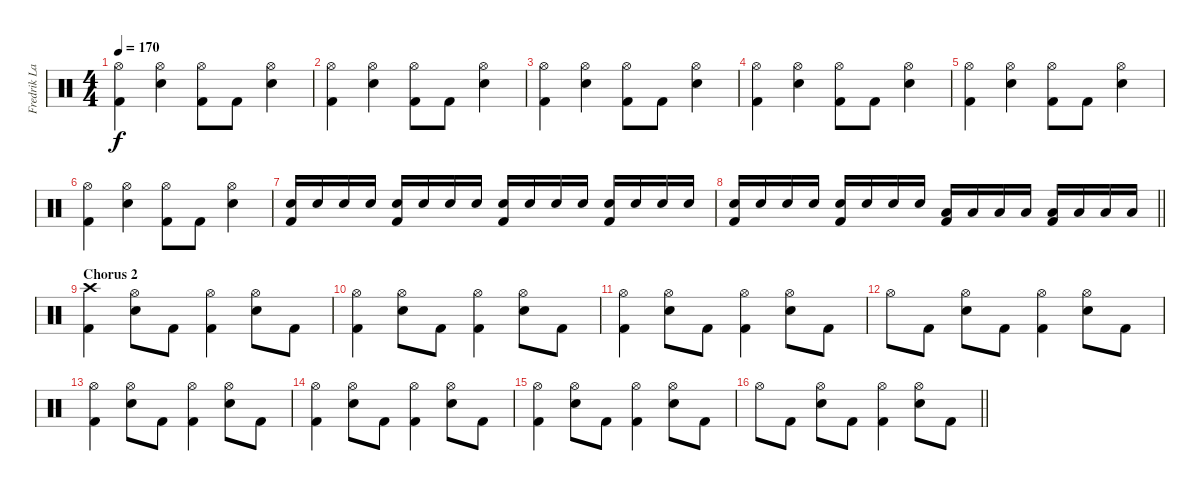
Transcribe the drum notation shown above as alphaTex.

\track ("Fredrik Larzon" "Fredrik La") {instrument percussion}
\staff {score}
\articulation defaults
\ts (4 4)
\tempo 170
\clef neutral
\ks c
("Hi-Hat (open)" "Kick (hit) 2").4{dy f} ("Hi-Hat (open)" "Electric Snare (hit)").4 ("Hi-Hat (open)" "Kick (hit) 2").8 "Kick (hit) 2".8 ("Hi-Hat (open)" "Electric Snare (hit)").4 |
("Hi-Hat (open)" "Kick (hit) 2").4 ("Hi-Hat (open)" "Electric Snare (hit)").4 ("Hi-Hat (open)" "Kick (hit) 2").8 "Kick (hit) 2".8 ("Hi-Hat (open)" "Electric Snare (hit)").4 |
("Hi-Hat (open)" "Kick (hit) 2").4 ("Hi-Hat (open)" "Electric Snare (hit)").4 ("Hi-Hat (open)" "Kick (hit) 2").8 "Kick (hit) 2".8 ("Hi-Hat (open)" "Electric Snare (hit)").4 |
("Hi-Hat (open)" "Kick (hit) 2").4 ("Hi-Hat (open)" "Electric Snare (hit)").4 ("Hi-Hat (open)" "Kick (hit) 2").8 "Kick (hit) 2".8 ("Hi-Hat (open)" "Electric Snare (hit)").4 |
("Hi-Hat (open)" "Kick (hit) 2").4 ("Hi-Hat (open)" "Electric Snare (hit)").4 ("Hi-Hat (open)" "Kick (hit) 2").8 "Kick (hit) 2".8 ("Hi-Hat (open)" "Electric Snare (hit)").4 |
("Hi-Hat (open)" "Kick (hit) 2").4 ("Hi-Hat (open)" "Electric Snare (hit)").4 ("Hi-Hat (open)" "Kick (hit) 2").8 "Kick (hit) 2".8 ("Hi-Hat (open)" "Electric Snare (hit)").4 |
("Electric Snare (hit)" "Kick (hit) 2").16 "Electric Snare (hit)".16 "Electric Snare (hit)".16 "Electric Snare (hit)".16 ("Electric Snare (hit)" "Kick (hit) 2").16 "Electric Snare (hit)".16 "Electric Snare (hit)".16 "Electric Snare (hit)".16 ("Electric Snare (hit)" "Kick (hit) 2").16 "Electric Snare (hit)".16 "Electric Snare (hit)".16 "Electric Snare (hit)".16 ("Electric Snare (hit)" "Kick (hit) 2").16 "Electric Snare (hit)".16 "Electric Snare (hit)".16 "Electric Snare (hit)".16 |
\barLineRight lightlight
("Electric Snare (hit)" "Kick (hit) 2").16 "Electric Snare (hit)".16 "Electric Snare (hit)".16 "Electric Snare (hit)".16 ("Electric Snare (hit)" "Kick (hit) 2").16 "Electric Snare (hit)".16 "Electric Snare (hit)".16 "Electric Snare (hit)".16 ("Kick (hit) 2" "Low Tom (hit)").16 "Low Tom (hit)".16 "Low Tom (hit)".16 "Low Tom (hit)".16 ("Kick (hit) 2" "Low Floor Tom (hit)").16 "Low Floor Tom (hit)".16 "Low Floor Tom (hit)".16 "Low Floor Tom (hit)".16 |
\section ("" "Chorus 2")
("Crash high (hit)" "Kick (hit) 2").4 ("Hi-Hat (open)" "Electric Snare (hit)").8 "Kick (hit) 2".8 ("Hi-Hat (open)" "Kick (hit) 2").4 ("Hi-Hat (open)" "Electric Snare (hit)").8 "Kick (hit) 2".8 |
("Hi-Hat (open)" "Kick (hit) 2").4 ("Hi-Hat (open)" "Electric Snare (hit)").8 "Kick (hit) 2".8 ("Hi-Hat (open)" "Kick (hit) 2").4 ("Hi-Hat (open)" "Electric Snare (hit)").8 "Kick (hit) 2".8 |
("Hi-Hat (open)" "Kick (hit) 2").4 ("Hi-Hat (open)" "Electric Snare (hit)").8 "Kick (hit) 2".8 ("Hi-Hat (open)" "Kick (hit) 2").4 ("Hi-Hat (open)" "Electric Snare (hit)").8 "Kick (hit) 2".8 |
"Hi-Hat (open)".8 "Kick (hit) 2".8 ("Hi-Hat (open)" "Electric Snare (hit)").8 "Kick (hit) 2".8 ("Hi-Hat (open)" "Kick (hit) 2").4 ("Hi-Hat (open)" "Electric Snare (hit)").8 "Kick (hit) 2".8 |
("Hi-Hat (open)" "Kick (hit) 2").4 ("Hi-Hat (open)" "Electric Snare (hit)").8 "Kick (hit) 2".8 ("Hi-Hat (open)" "Kick (hit) 2").4 ("Hi-Hat (open)" "Electric Snare (hit)").8 "Kick (hit) 2".8 |
("Hi-Hat (open)" "Kick (hit) 2").4 ("Hi-Hat (open)" "Electric Snare (hit)").8 "Kick (hit) 2".8 ("Hi-Hat (open)" "Kick (hit) 2").4 ("Hi-Hat (open)" "Electric Snare (hit)").8 "Kick (hit) 2".8 |
("Hi-Hat (open)" "Kick (hit) 2").4 ("Hi-Hat (open)" "Electric Snare (hit)").8 "Kick (hit) 2".8 ("Hi-Hat (open)" "Kick (hit) 2").4 ("Hi-Hat (open)" "Electric Snare (hit)").8 "Kick (hit) 2".8 |
\barLineRight lightlight "Hi-Hat (open)".8 "Kick (hit) 2".8
("Hi-Hat (open)" "Electric Snare (hit)").8 "Kick (hit) 2".8 ("Hi-Hat (open)" "Kick (hit) 2").4 ("Hi-Hat (open)" "Electric Snare (hit)").8 "Kick (hit) 2".8
